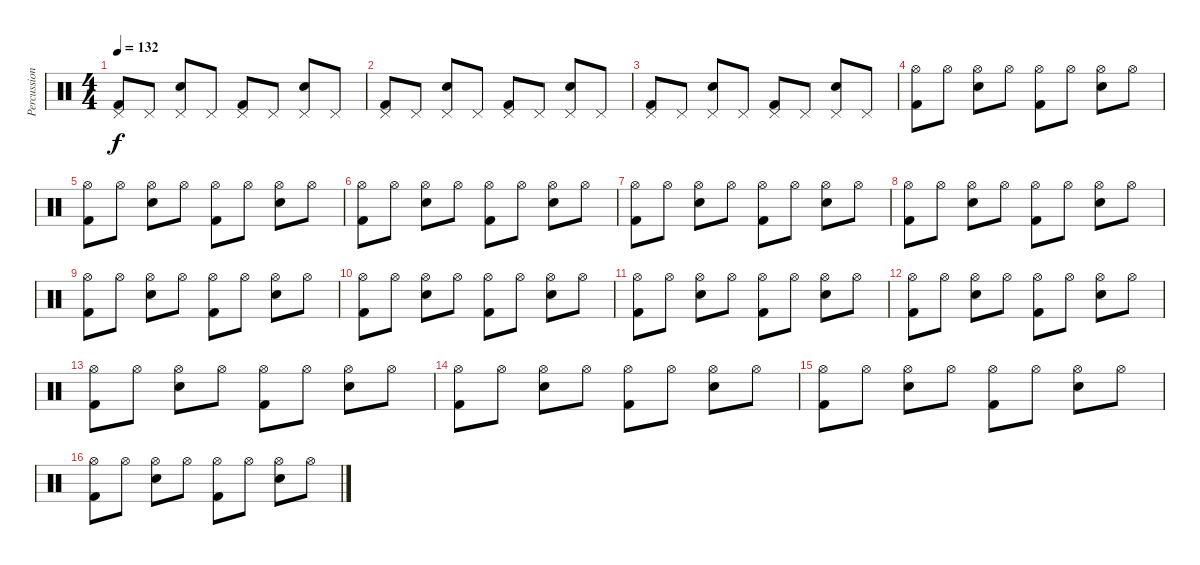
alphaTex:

\track ("Percussion" "Percussion") {instrument percussion}
\staff {score}
\articulation defaults
\ts (4 4)
\tempo 132
\clef neutral
\ks c
("Pedal Hi-Hat (hit)" "Kick (hit) 2").8{dy f} "Pedal Hi-Hat (hit)".8 ("Pedal Hi-Hat (hit)" "Snare (hit) 2").8 "Pedal Hi-Hat (hit)".8 ("Pedal Hi-Hat (hit)" "Kick (hit) 2").8 "Pedal Hi-Hat (hit)".8 ("Pedal Hi-Hat (hit)" "Snare (hit) 2").8 "Pedal Hi-Hat (hit)".8 |
("Pedal Hi-Hat (hit)" "Kick (hit) 2").8 "Pedal Hi-Hat (hit)".8 ("Pedal Hi-Hat (hit)" "Snare (hit) 2").8 "Pedal Hi-Hat (hit)".8 ("Pedal Hi-Hat (hit)" "Kick (hit) 2").8 "Pedal Hi-Hat (hit)".8 ("Pedal Hi-Hat (hit)" "Snare (hit) 2").8 "Pedal Hi-Hat (hit)".8 |
("Pedal Hi-Hat (hit)" "Kick (hit) 2").8 "Pedal Hi-Hat (hit)".8 ("Pedal Hi-Hat (hit)" "Snare (hit) 2").8 "Pedal Hi-Hat (hit)".8 ("Pedal Hi-Hat (hit)" "Kick (hit) 2").8 "Pedal Hi-Hat (hit)".8 ("Pedal Hi-Hat (hit)" "Snare (hit) 2").8 "Pedal Hi-Hat (hit)".8 |
("Hi-Hat (open)" "Kick (hit) 2").8 "Hi-Hat (open)".8 ("Hi-Hat (open)" "Snare (hit) 2").8 "Hi-Hat (open)".8 ("Hi-Hat (open)" "Kick (hit) 2").8 "Hi-Hat (open)".8 ("Hi-Hat (open)" "Snare (hit) 2").8 "Hi-Hat (open)".8 |
("Hi-Hat (open)" "Kick (hit) 2").8 "Hi-Hat (open)".8 ("Hi-Hat (open)" "Snare (hit) 2").8 "Hi-Hat (open)".8 ("Hi-Hat (open)" "Kick (hit) 2").8 "Hi-Hat (open)".8 ("Hi-Hat (open)" "Snare (hit) 2").8 "Hi-Hat (open)".8 |
("Hi-Hat (open)" "Kick (hit) 2").8 "Hi-Hat (open)".8 ("Hi-Hat (open)" "Snare (hit) 2").8 "Hi-Hat (open)".8 ("Hi-Hat (open)" "Kick (hit) 2").8 "Hi-Hat (open)".8 ("Hi-Hat (open)" "Snare (hit) 2").8 "Hi-Hat (open)".8 |
("Hi-Hat (open)" "Kick (hit) 2").8 "Hi-Hat (open)".8 ("Hi-Hat (open)" "Snare (hit) 2").8 "Hi-Hat (open)".8 ("Hi-Hat (open)" "Kick (hit) 2").8 "Hi-Hat (open)".8 ("Hi-Hat (open)" "Snare (hit) 2").8 "Hi-Hat (open)".8 |
("Hi-Hat (open)" "Kick (hit) 2").8 "Hi-Hat (open)".8 ("Hi-Hat (open)" "Snare (hit) 2").8 "Hi-Hat (open)".8 ("Hi-Hat (open)" "Kick (hit) 2").8 "Hi-Hat (open)".8 ("Hi-Hat (open)" "Snare (hit) 2").8 "Hi-Hat (open)".8 |
("Hi-Hat (open)" "Kick (hit) 2").8 "Hi-Hat (open)".8 ("Hi-Hat (open)" "Snare (hit) 2").8 "Hi-Hat (open)".8 ("Hi-Hat (open)" "Kick (hit) 2").8 "Hi-Hat (open)".8 ("Hi-Hat (open)" "Snare (hit) 2").8 "Hi-Hat (open)".8 |
("Hi-Hat (open)" "Kick (hit) 2").8 "Hi-Hat (open)".8 ("Hi-Hat (open)" "Snare (hit) 2").8 "Hi-Hat (open)".8 ("Hi-Hat (open)" "Kick (hit) 2").8 "Hi-Hat (open)".8 ("Hi-Hat (open)" "Snare (hit) 2").8 "Hi-Hat (open)".8 |
("Hi-Hat (open)" "Kick (hit) 2").8 "Hi-Hat (open)".8 ("Hi-Hat (open)" "Snare (hit) 2").8 "Hi-Hat (open)".8 ("Hi-Hat (open)" "Kick (hit) 2").8 "Hi-Hat (open)".8 ("Hi-Hat (open)" "Snare (hit) 2").8 "Hi-Hat (open)".8 |
("Hi-Hat (open)" "Kick (hit) 2").8 "Hi-Hat (open)".8 ("Hi-Hat (open)" "Snare (hit) 2").8 "Hi-Hat (open)".8 ("Hi-Hat (open)" "Kick (hit) 2").8 "Hi-Hat (open)".8 ("Hi-Hat (open)" "Snare (hit) 2").8 "Hi-Hat (open)".8 |
("Hi-Hat (open)" "Kick (hit) 2").8 "Hi-Hat (open)".8 ("Hi-Hat (open)" "Snare (hit) 2").8 "Hi-Hat (open)".8 ("Hi-Hat (open)" "Kick (hit) 2").8 "Hi-Hat (open)".8 ("Hi-Hat (open)" "Snare (hit) 2").8 "Hi-Hat (open)".8 |
("Hi-Hat (open)" "Kick (hit) 2").8 "Hi-Hat (open)".8 ("Hi-Hat (open)" "Snare (hit) 2").8 "Hi-Hat (open)".8 ("Hi-Hat (open)" "Kick (hit) 2").8 "Hi-Hat (open)".8 ("Hi-Hat (open)" "Snare (hit) 2").8 "Hi-Hat (open)".8 |
("Hi-Hat (open)" "Kick (hit) 2").8 "Hi-Hat (open)".8 ("Hi-Hat (open)" "Snare (hit) 2").8 "Hi-Hat (open)".8 ("Hi-Hat (open)" "Kick (hit) 2").8 "Hi-Hat (open)".8 ("Hi-Hat (open)" "Snare (hit) 2").8 "Hi-Hat (open)".8 |
("Hi-Hat (open)" "Kick (hit) 2").8 "Hi-Hat (open)".8 ("Hi-Hat (open)" "Snare (hit) 2").8 "Hi-Hat (open)".8 ("Hi-Hat (open)" "Kick (hit) 2").8 "Hi-Hat (open)".8 ("Hi-Hat (open)" "Snare (hit) 2").8 "Hi-Hat (open)".8
